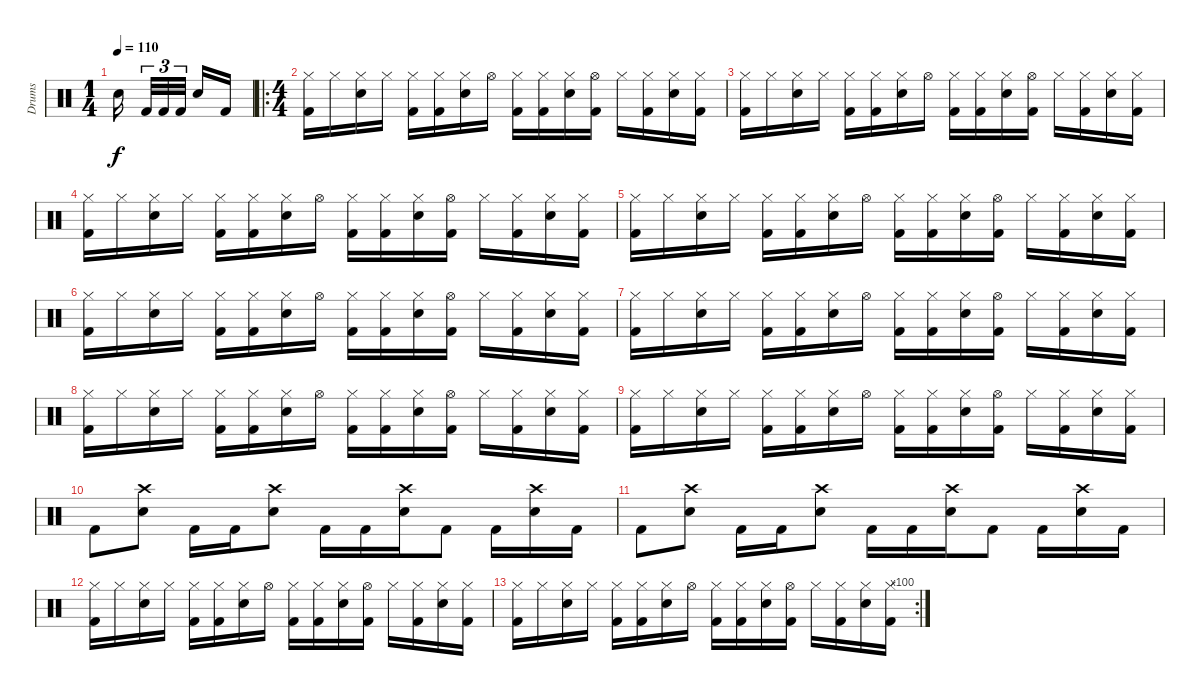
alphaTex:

\track ("Drums" "Drums") {instrument percussion}
\staff {score}
\articulation defaults
\ts (1 4)
\tempo 110
\clef neutral
\ks c "Snare (hit) 2".16{dy f} "Kick (hit) 2".32{tu (3 2)} "Kick (hit) 2".32{tu (3 2)} "Kick (hit) 2".32{tu (3 2)} "Snare (hit) 2".16 "Kick (hit) 2".16
|
\ro
\ts (4 4)
("Hi-Hat (closed)" "Kick (hit) 2").16 "Hi-Hat (closed)".16 ("Snare (hit) 2" "Hi-Hat (closed)").16 "Hi-Hat (closed)".16 ("Hi-Hat (closed)" "Kick (hit) 2").16 ("Hi-Hat (closed)" "Kick (hit) 2").16 ("Snare (hit) 2" "Hi-Hat (closed)").16 "Hi-Hat (open)".16 ("Hi-Hat (closed)" "Kick (hit) 2").16 ("Hi-Hat (closed)" "Kick (hit) 2").16 ("Snare (hit) 2" "Hi-Hat (closed)").16 ("Hi-Hat (open)" "Kick (hit) 2").16 "Hi-Hat (closed)".16 ("Hi-Hat (closed)" "Kick (hit) 2").16 ("Snare (hit) 2" "Hi-Hat (closed)").16 ("Hi-Hat (closed)" "Kick (hit) 2").16 |
("Hi-Hat (closed)" "Kick (hit) 2").16 "Hi-Hat (closed)".16 ("Snare (hit) 2" "Hi-Hat (closed)").16 "Hi-Hat (closed)".16 ("Hi-Hat (closed)" "Kick (hit) 2").16 ("Hi-Hat (closed)" "Kick (hit) 2").16 ("Snare (hit) 2" "Hi-Hat (closed)").16 "Hi-Hat (open)".16 ("Hi-Hat (closed)" "Kick (hit) 2").16 ("Hi-Hat (closed)" "Kick (hit) 2").16 ("Snare (hit) 2" "Hi-Hat (closed)").16 ("Hi-Hat (open)" "Kick (hit) 2").16 "Hi-Hat (closed)".16 ("Hi-Hat (closed)" "Kick (hit) 2").16 ("Snare (hit) 2" "Hi-Hat (closed)").16 ("Hi-Hat (closed)" "Kick (hit) 2").16 |
("Hi-Hat (closed)" "Kick (hit) 2").16 "Hi-Hat (closed)".16 ("Snare (hit) 2" "Hi-Hat (closed)").16 "Hi-Hat (closed)".16 ("Hi-Hat (closed)" "Kick (hit) 2").16 ("Hi-Hat (closed)" "Kick (hit) 2").16 ("Snare (hit) 2" "Hi-Hat (closed)").16 "Hi-Hat (open)".16 ("Hi-Hat (closed)" "Kick (hit) 2").16 ("Hi-Hat (closed)" "Kick (hit) 2").16 ("Snare (hit) 2" "Hi-Hat (closed)").16 ("Hi-Hat (open)" "Kick (hit) 2").16 "Hi-Hat (closed)".16 ("Hi-Hat (closed)" "Kick (hit) 2").16 ("Snare (hit) 2" "Hi-Hat (closed)").16 ("Hi-Hat (closed)" "Kick (hit) 2").16 |
("Hi-Hat (closed)" "Kick (hit) 2").16 "Hi-Hat (closed)".16 ("Snare (hit) 2" "Hi-Hat (closed)").16 "Hi-Hat (closed)".16 ("Hi-Hat (closed)" "Kick (hit) 2").16 ("Hi-Hat (closed)" "Kick (hit) 2").16 ("Snare (hit) 2" "Hi-Hat (closed)").16 "Hi-Hat (open)".16 ("Hi-Hat (closed)" "Kick (hit) 2").16 ("Hi-Hat (closed)" "Kick (hit) 2").16 ("Snare (hit) 2" "Hi-Hat (closed)").16 ("Hi-Hat (open)" "Kick (hit) 2").16 "Hi-Hat (closed)".16 ("Hi-Hat (closed)" "Kick (hit) 2").16 ("Snare (hit) 2" "Hi-Hat (closed)").16 ("Hi-Hat (closed)" "Kick (hit) 2").16 |
("Hi-Hat (closed)" "Kick (hit) 2").16 "Hi-Hat (closed)".16 ("Snare (hit) 2" "Hi-Hat (closed)").16 "Hi-Hat (closed)".16 ("Hi-Hat (closed)" "Kick (hit) 2").16 ("Hi-Hat (closed)" "Kick (hit) 2").16 ("Snare (hit) 2" "Hi-Hat (closed)").16 "Hi-Hat (open)".16 ("Hi-Hat (closed)" "Kick (hit) 2").16 ("Hi-Hat (closed)" "Kick (hit) 2").16 ("Snare (hit) 2" "Hi-Hat (closed)").16 ("Hi-Hat (open)" "Kick (hit) 2").16 "Hi-Hat (closed)".16 ("Hi-Hat (closed)" "Kick (hit) 2").16 ("Snare (hit) 2" "Hi-Hat (closed)").16 ("Hi-Hat (closed)" "Kick (hit) 2").16 |
("Hi-Hat (closed)" "Kick (hit) 2").16 "Hi-Hat (closed)".16 ("Snare (hit) 2" "Hi-Hat (closed)").16 "Hi-Hat (closed)".16 ("Hi-Hat (closed)" "Kick (hit) 2").16 ("Hi-Hat (closed)" "Kick (hit) 2").16 ("Snare (hit) 2" "Hi-Hat (closed)").16 "Hi-Hat (open)".16 ("Hi-Hat (closed)" "Kick (hit) 2").16 ("Hi-Hat (closed)" "Kick (hit) 2").16 ("Snare (hit) 2" "Hi-Hat (closed)").16 ("Hi-Hat (open)" "Kick (hit) 2").16 "Hi-Hat (closed)".16 ("Hi-Hat (closed)" "Kick (hit) 2").16 ("Snare (hit) 2" "Hi-Hat (closed)").16 ("Hi-Hat (closed)" "Kick (hit) 2").16 |
("Hi-Hat (closed)" "Kick (hit) 2").16 "Hi-Hat (closed)".16 ("Snare (hit) 2" "Hi-Hat (closed)").16 "Hi-Hat (closed)".16 ("Hi-Hat (closed)" "Kick (hit) 2").16 ("Hi-Hat (closed)" "Kick (hit) 2").16 ("Snare (hit) 2" "Hi-Hat (closed)").16 "Hi-Hat (open)".16 ("Hi-Hat (closed)" "Kick (hit) 2").16 ("Hi-Hat (closed)" "Kick (hit) 2").16 ("Snare (hit) 2" "Hi-Hat (closed)").16 ("Hi-Hat (open)" "Kick (hit) 2").16 "Hi-Hat (closed)".16 ("Hi-Hat (closed)" "Kick (hit) 2").16 ("Snare (hit) 2" "Hi-Hat (closed)").16 ("Hi-Hat (closed)" "Kick (hit) 2").16 |
("Hi-Hat (closed)" "Kick (hit) 2").16 "Hi-Hat (closed)".16 ("Snare (hit) 2" "Hi-Hat (closed)").16 "Hi-Hat (closed)".16 ("Hi-Hat (closed)" "Kick (hit) 2").16 ("Hi-Hat (closed)" "Kick (hit) 2").16 ("Snare (hit) 2" "Hi-Hat (closed)").16 "Hi-Hat (open)".16 ("Hi-Hat (closed)" "Kick (hit) 2").16 ("Hi-Hat (closed)" "Kick (hit) 2").16 ("Snare (hit) 2" "Hi-Hat (closed)").16 ("Hi-Hat (open)" "Kick (hit) 2").16 "Hi-Hat (closed)".16 ("Hi-Hat (closed)" "Kick (hit) 2").16 ("Snare (hit) 2" "Hi-Hat (closed)").16 ("Hi-Hat (closed)" "Kick (hit) 2").16 |
"Kick (hit) 2".8 ("Snare (hit) 2" "Crash high (hit)").8 "Kick (hit) 2".16 "Kick (hit) 2".16 ("Snare (hit) 2" "Crash high (hit)").8 "Kick (hit) 2".16 "Kick (hit) 2".16 ("Snare (hit) 2" "Crash high (hit)").16 "Kick (hit) 2".8 "Kick (hit) 2".16 ("Snare (hit) 2" "Crash high (hit)").16 "Kick (hit) 2".16 |
"Kick (hit) 2".8 ("Snare (hit) 2" "Crash high (hit)").8 "Kick (hit) 2".16 "Kick (hit) 2".16 ("Snare (hit) 2" "Crash high (hit)").8 "Kick (hit) 2".16 "Kick (hit) 2".16 ("Snare (hit) 2" "Crash high (hit)").16 "Kick (hit) 2".8 "Kick (hit) 2".16 ("Snare (hit) 2" "Crash high (hit)").16 "Kick (hit) 2".16 |
("Hi-Hat (closed)" "Kick (hit) 2").16 "Hi-Hat (closed)".16 ("Snare (hit) 2" "Hi-Hat (closed)").16 "Hi-Hat (closed)".16 ("Hi-Hat (closed)" "Kick (hit) 2").16 ("Hi-Hat (closed)" "Kick (hit) 2").16 ("Snare (hit) 2" "Hi-Hat (closed)").16 "Hi-Hat (open)".16 ("Hi-Hat (closed)" "Kick (hit) 2").16 ("Hi-Hat (closed)" "Kick (hit) 2").16 ("Snare (hit) 2" "Hi-Hat (closed)").16 ("Hi-Hat (open)" "Kick (hit) 2").16 "Hi-Hat (closed)".16 ("Hi-Hat (closed)" "Kick (hit) 2").16 ("Snare (hit) 2" "Hi-Hat (closed)").16 ("Hi-Hat (closed)" "Kick (hit) 2").16 |
\rc 100
("Hi-Hat (closed)" "Kick (hit) 2").16 "Hi-Hat (closed)".16 ("Snare (hit) 2" "Hi-Hat (closed)").16 "Hi-Hat (closed)".16 ("Hi-Hat (closed)" "Kick (hit) 2").16 ("Hi-Hat (closed)" "Kick (hit) 2").16 ("Snare (hit) 2" "Hi-Hat (closed)").16 "Hi-Hat (open)".16 ("Hi-Hat (closed)" "Kick (hit) 2").16 ("Hi-Hat (closed)" "Kick (hit) 2").16 ("Snare (hit) 2" "Hi-Hat (closed)").16 ("Hi-Hat (open)" "Kick (hit) 2").16 "Hi-Hat (closed)".16 ("Hi-Hat (closed)" "Kick (hit) 2").16 ("Snare (hit) 2" "Hi-Hat (closed)").16 ("Hi-Hat (closed)" "Kick (hit) 2").16
